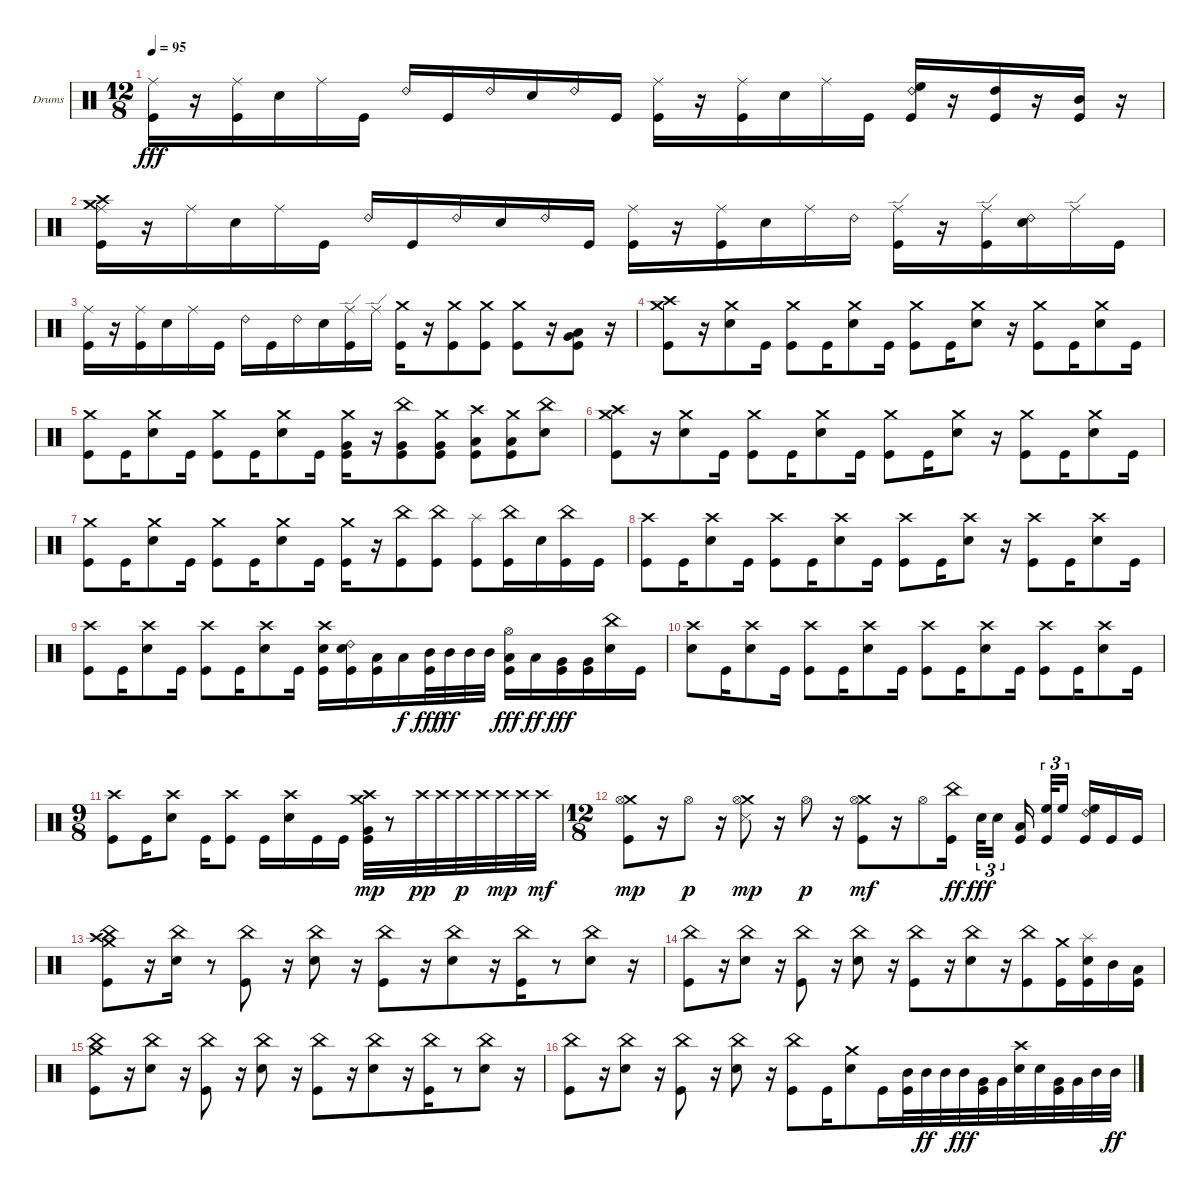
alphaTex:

\bracketExtendMode groupsimilarinstruments
\firstSystemTrackNameOrientation horizontal
\otherSystemsTrackNameOrientation horizontal
\track ("Drumkit" "Drums") {instrument percussion}
\staff {score}
\articulation defaults
\ts (12 8)
\tempo 95
\clef neutral
\ks c
("Ride (middle)" "Kick (hit)").16{dy fff} r.16 ("Ride (middle)" "Kick (hit)").16 "Snare (hit) 2".16 "Ride (middle)".16 "Kick (hit)".16 "Ride (bell) 2".16 "Kick (hit)".16 "Ride (bell) 2".16 "Snare (hit) 2".16 "Ride (bell) 2".16 "Kick (hit)".16 ("Ride (middle)" "Kick (hit)").16 r.16 ("Ride (middle)" "Kick (hit)").16 "Snare (hit) 2".16 "Ride (middle)".16 "Kick (hit)".16 ("Kick (hit)" "Ride (bell) 2" "High Floor Tom (hit)").16 r.16 ("Kick (hit)" "High Tom (hit)").16 r.16 ("Kick (hit)" "Mid Tom (hit)").16 r.16 |
("Ride (middle)" "Kick (hit)" "Crash medium (hit)" "Crash high (hit)").16 r.16 "Ride (middle)".16 "Snare (hit) 2".16 "Ride (middle)".16 "Kick (hit)".16 "Ride (bell) 2".16 "Kick (hit)".16 "Ride (bell) 2".16 "Snare (hit) 2".16 "Ride (bell) 2".16 "Kick (hit)".16 ("Ride (middle)" "Kick (hit)").16 r.16 ("Ride (middle)" "Kick (hit)").16 "Snare (hit) 2".16 "Ride (middle)".16 "Ride (bell) 2".16 ("Kick (hit)" "Ride (edge)").16 r.16 ("Kick (hit)" "Ride (edge)").16 ("Snare (hit) 2" "Ride (bell) 2").16 "Ride (edge)".16 "Kick (hit)".16 |
("Ride (middle)" "Kick (hit)").16 r.16 ("Ride (middle)" "Kick (hit)").16 "Snare (hit) 2".16 "Ride (middle)".16 "Kick (hit)".16 "Ride (bell) 2".16 "Kick (hit)".16 "Ride (bell) 2".16 "Snare (hit) 2".16 ("Kick (hit)" "Ride (edge)").16 "Ride (edge)".16 ("Kick (hit)" "Crash medium (hit)").16 r.16 ("Kick (hit)" "Crash medium (hit)").8 ("Kick (hit)" "Crash medium (hit)").8 ("Kick (hit)" "Crash medium (hit)").8 r.16 ("Kick (hit)" "Low Tom (hit)" "Very Low Tom (hit)").8 r.16 |
("Kick (hit)" "Crash medium (hit)" "Crash high (hit)").8 r.16 ("Snare (hit) 2" "Crash medium (hit)").8 "Kick (hit)".16 ("Kick (hit)" "Crash medium (hit)").8 "Kick (hit)".16 ("Snare (hit) 2" "Crash medium (hit)").8 "Kick (hit)".16 ("Kick (hit)" "Crash medium (hit)").8 "Kick (hit)".16 ("Snare (hit) 2" "Crash medium (hit)").8 r.16 ("Kick (hit)" "Crash medium (hit)").8 "Kick (hit)".16 ("Snare (hit) 2" "Crash medium (hit)").8 "Kick (hit)".16 |
("Kick (hit)" "Crash medium (hit)").8 "Kick (hit)".16 ("Snare (hit) 2" "Crash medium (hit)").8 "Kick (hit)".16 ("Kick (hit)" "Crash medium (hit)").8 "Kick (hit)".16 ("Snare (hit) 2" "Crash medium (hit)").8 "Kick (hit)".16 ("Kick (hit)" "Very Low Tom (hit)" "Crash medium (hit)").16 r.16 ("Kick (hit)" "Very Low Tom (hit)" "China (hit)").8 ("Very Low Tom (hit)" "Kick (hit)" "Crash medium (hit)").8 ("Kick (hit)" "Low Tom (hit)" "Crash high (hit)").8 ("Kick (hit)" "Low Tom (hit)" "Crash medium (hit)").8 ("Snare (hit) 2" "China (hit)").8 |
("Kick (hit)" "Crash medium (hit)" "Crash high (hit)").8 r.16 ("Snare (hit) 2" "Crash medium (hit)").8 "Kick (hit)".16 ("Kick (hit)" "Crash medium (hit)").8 "Kick (hit)".16 ("Snare (hit) 2" "Crash medium (hit)").8 "Kick (hit)".16 ("Kick (hit)" "Crash medium (hit)").8 "Kick (hit)".16 ("Snare (hit) 2" "Crash medium (hit)").8 r.16 ("Kick (hit)" "Crash medium (hit)").8 "Kick (hit)".16 ("Snare (hit) 2" "Crash medium (hit)").8 "Kick (hit)".16 |
("Kick (hit)" "Crash medium (hit)").8 "Kick (hit)".16 ("Snare (hit) 2" "Crash medium (hit)").8 "Kick (hit)".16 ("Kick (hit)" "Crash medium (hit)").8 "Kick (hit)".16 ("Snare (hit) 2" "Crash medium (hit)").8 "Kick (hit)".16 ("Kick (hit)" "Crash medium (hit)").16 r.16 ("Kick (hit)" "China (hit)").8 ("Kick (hit)" "China (hit)").8 ("Splash (hit)" "Kick (hit)").8 ("Kick (hit)" "China (hit)").16 "Snare (hit) 2".16 ("China (hit)" "Kick (hit)").16 "Kick (hit)".16 |
("Kick (hit)" "Crash high (hit)").8 "Kick (hit)".16 ("Snare (hit) 2" "Crash high (hit)").8 "Kick (hit)".16 ("Kick (hit)" "Crash high (hit)").8 "Kick (hit)".16 ("Snare (hit) 2" "Crash high (hit)").8 "Kick (hit)".16 ("Kick (hit)" "Crash high (hit)").8 "Kick (hit)".16 ("Snare (hit) 2" "Crash high (hit)").8 r.16 ("Kick (hit)" "Crash high (hit)").8 "Kick (hit)".16 ("Snare (hit) 2" "Crash high (hit)").8 "Kick (hit)".16 |
("Kick (hit)" "Crash high (hit)").8 "Kick (hit)".16 ("Snare (hit) 2" "Crash high (hit)").8 "Kick (hit)".16 ("Kick (hit)" "Crash high (hit)").8 "Kick (hit)".16 ("Snare (hit) 2" "Crash high (hit)").8 "Kick (hit)".16 ("Kick (hit)" "Snare (hit) 2" "Crash high (hit)").16 ("Kick (hit)" "Snare (hit) 2" "Ride (bell) 2").16 ("Kick (hit)" "Low Tom (hit)").16 "Low Tom (hit)".16{dy f} ("Kick (hit)" "Mid Tom (hit)").32{dy fff} "Mid Tom (hit)".32{dy ff} "Mid Tom (hit)".32 "Mid Tom (hit)".32 ("Hi-Hat (open)" "Low Tom (hit)" "Kick (hit)").16{dy fff} "Low Tom (hit)".16{dy ff} ("Kick (hit)" "Very Low Tom (hit)").16{dy fff} ("Kick (hit)" "Very Low Tom (hit)").16 ("China (hit)" "Snare (hit) 2").16 "Kick (hit)".16 |
("Snare (hit) 2" "Crash high (hit)").8 "Kick (hit)".16 ("Snare (hit) 2" "Crash high (hit)").8 "Kick (hit)".16 ("Kick (hit)" "Crash high (hit)").8 "Kick (hit)".16 ("Snare (hit) 2" "Crash high (hit)").8 "Kick (hit)".16 ("Kick (hit)" "Crash high (hit)").8 "Kick (hit)".16 ("Snare (hit) 2" "Crash high (hit)").8 "Kick (hit)".16 ("Kick (hit)" "Crash high (hit)").8 "Kick (hit)".16 ("Snare (hit) 2" "Crash high (hit)").8 "Kick (hit)".16 |
\ts (9 8)
\beaming (8 2 2 2 3)
("Kick (hit)" "Crash high (hit)").8 "Kick (hit)".16 ("Snare (hit) 2" "Crash high (hit)").8 "Kick (hit)".16 ("Kick (hit)" "Crash high (hit)").8 "Kick (hit)".16 ("Snare (hit) 2" "Crash high (hit)").16 "Kick (hit)".16 "Kick (hit)".16 ("Crash high (hit)" "Kick (hit)" "Very Low Tom (hit)" "Crash medium (hit)").32{dy mp} r.8 "Crash high (hit)".32{dy pp} "Crash high (hit)".32 "Crash high (hit)".32{dy p} "Crash high (hit)".32 "Crash high (hit)".32{dy mp} "Crash high (hit)".32 "Crash high (hit)".32{dy mf} |
\ts (12 8)
\beaming (8 2 2 2 6)
("Crash medium (hit)" "Hi-Hat (open)" "Kick (hit)").8{dy mp} r.16 "Hi-Hat (open)".8{dy p} r.16 ("Crash medium (hit)" "Hi-Hat (open)" "Snare (side stick) 3").8{dy mp} r.16 "Hi-Hat (open)".8{dy p} r.16 ("Crash medium (hit)" "Kick (hit)" "Hi-Hat (open)").8{dy mf} r.16 "Hi-Hat (open)".8 ("Kick (hit)" "China (hit)").16{dy ff} "Snare (hit) 2".32{tu (3 2) dy fff} "Snare (hit) 2".16{tu (3 2)} ("Kick (hit)" "Low Tom (hit)").16 ("High Floor Tom (hit)" "Kick (hit)").32{tu (3 2)} "High Floor Tom (hit)".16{tu (3 2)} ("High Floor Tom (hit)" "Kick (hit)" "Ride (bell) 2").16 "Kick (hit)".16 "Kick (hit)".16 |
("Kick (hit)" "Crash medium (hit)" "China (hit)" "Crash high (hit)").8 r.16 ("Snare (hit) 2" "China (hit)").16 r.8 ("Kick (hit)" "China (hit)").8 r.16 ("Snare (hit) 2" "China (hit)").8 r.16 ("Kick (hit)" "China (hit)").8 r.16 ("Snare (hit) 2" "China (hit)").8 r.16 ("Kick (hit)" "China (hit)").16 r.8 ("Snare (hit) 2" "China (hit)").8 r.16 |
("Kick (hit)" "China (hit)").8 r.16 ("Snare (hit) 2" "China (hit)").8 r.16 ("Kick (hit)" "China (hit)").8 r.16 ("Snare (hit) 2" "China (hit)").8 r.16 ("Kick (hit)" "China (hit)").8 r.16 ("Snare (hit) 2" "China (hit)").8 r.16 ("Kick (hit)" "China (hit)").8 ("Kick (hit)" "Crash medium (hit)").16 ("Splash (hit)" "Kick (hit)" "Snare (hit) 2").16 "Mid Tom (hit)".16 ("Kick (hit)" "Low Tom (hit)").16 |
("Kick (hit)" "Crash medium (hit)" "China (hit)").8 r.16 ("Snare (hit) 2" "China (hit)").8 r.16 ("Kick (hit)" "China (hit)").8 r.16 ("Snare (hit) 2" "China (hit)").8 r.16 ("Kick (hit)" "China (hit)").8 r.16 ("Snare (hit) 2" "China (hit)").8 r.16 ("Kick (hit)" "China (hit)").16 r.8 ("Snare (hit) 2" "China (hit)").8 r.16 |
("Kick (hit)" "China (hit)").8 r.16 ("Snare (hit) 2" "China (hit)").8 r.16 ("Kick (hit)" "China (hit)").8 r.16 ("Snare (hit) 2" "China (hit)").8 r.16 ("Kick (hit)" "China (hit)").8 "Kick (hit)".16 ("Snare (hit) 2" "Crash medium (hit)").8 "Kick (hit)".16 ("Kick (hit)" "Mid Tom (hit)").32 "Mid Tom (hit)".32{dy ff} "Mid Tom (hit)".32 "Mid Tom (hit)".32{dy fff} ("Kick (hit)" "Very Low Tom (hit)").32 "Very Low Tom (hit)".32 ("Snare (hit) 2" "Crash high (hit)").32 "Snare (hit) 2".32 ("Kick (hit)" "Very Low Tom (hit)").32 "Very Low Tom (hit)".32 "Mid Tom (hit)".32 "Mid Tom (hit)".32{dy ff}
